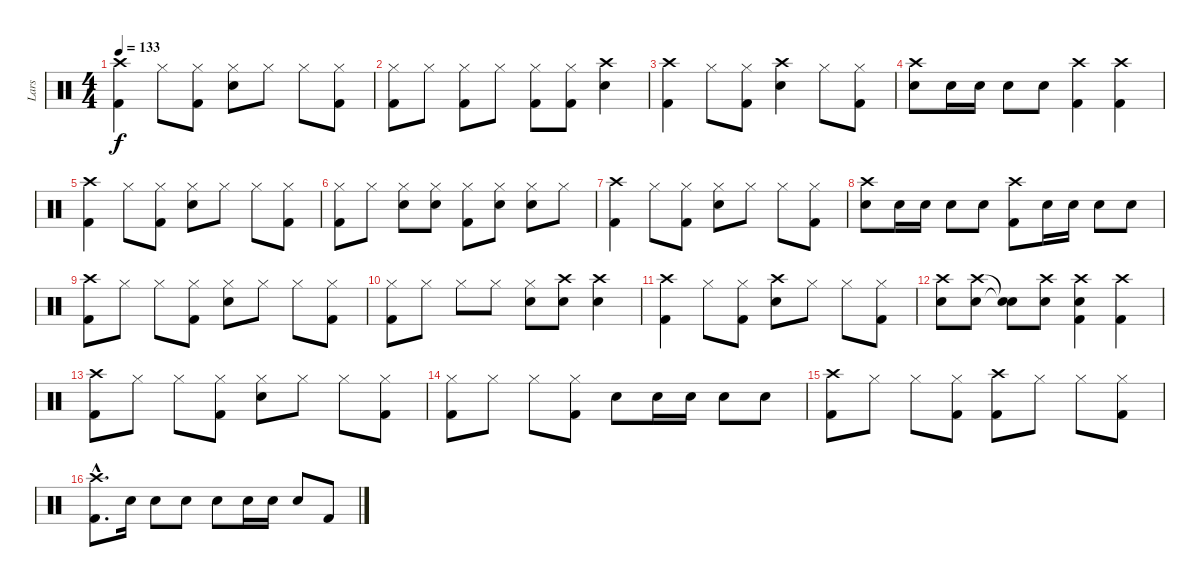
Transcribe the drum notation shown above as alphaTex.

\track ("Lars" "Lars") {instrument percussion}
\staff {score}
\articulation defaults
\ts (4 4)
\tempo 133
\clef neutral
\ks c
("Crash high (hit)" "Kick (hit) 2").4{dy f} "Hi-Hat (closed)".8 ("Kick (hit) 2" "Hi-Hat (closed)").8 ("Hi-Hat (closed)" "Electric Snare (hit)").8 "Hi-Hat (closed)".8 "Hi-Hat (closed)".8 ("Kick (hit) 2" "Hi-Hat (closed)").8 |
("Hi-Hat (closed)" "Kick (hit) 2").8 "Hi-Hat (closed)".8 ("Hi-Hat (closed)" "Kick (hit) 2").8 "Hi-Hat (closed)".8 ("Hi-Hat (closed)" "Kick (hit) 2").8 ("Hi-Hat (closed)" "Kick (hit) 2").8 ("Crash high (hit)" "Electric Snare (hit)").4 |
("Crash high (hit)" "Kick (hit) 2").4 "Hi-Hat (closed)".8 ("Hi-Hat (closed)" "Kick (hit) 2").8 ("Crash high (hit)" "Electric Snare (hit)").4 "Hi-Hat (closed)".8 ("Hi-Hat (closed)" "Kick (hit) 2").8 |
("Crash high (hit)" "Snare (hit) 2").8 "Electric Snare (hit)".16 "Electric Snare (hit)".16 "Electric Snare (hit)".8 "Electric Snare (hit)".8 ("Crash high (hit)" "Kick (hit) 2").4 ("Crash high (hit)" "Kick (hit) 2").4 |
("Crash high (hit)" "Kick (hit) 2").4 "Hi-Hat (closed)".8 ("Hi-Hat (closed)" "Kick (hit) 2").8 ("Hi-Hat (closed)" "Electric Snare (hit)").8 "Hi-Hat (closed)".8 "Hi-Hat (closed)".8 ("Hi-Hat (closed)" "Kick (hit) 2").8 |
("Hi-Hat (closed)" "Kick (hit) 2").8 "Hi-Hat (closed)".8 ("Hi-Hat (closed)" "Electric Snare (hit)").8 ("Hi-Hat (closed)" "Electric Snare (hit)").8 ("Hi-Hat (closed)" "Kick (hit) 2").8 ("Hi-Hat (closed)" "Electric Snare (hit)").8 ("Hi-Hat (closed)" "Electric Snare (hit)").8 "Hi-Hat (closed)".8 |
("Crash high (hit)" "Kick (hit) 2").4 "Hi-Hat (closed)".8 ("Kick (hit) 2" "Hi-Hat (closed)").8 ("Hi-Hat (closed)" "Electric Snare (hit)").8 "Hi-Hat (closed)".8 "Hi-Hat (closed)".8 ("Kick (hit) 2" "Hi-Hat (closed)").8 |
("Crash high (hit)" "Electric Snare (hit)").8 "Electric Snare (hit)".16 "Electric Snare (hit)".16 "Electric Snare (hit)".8 "Electric Snare (hit)".8 ("Crash high (hit)" "Kick (hit) 2").8 "Electric Snare (hit)".16 "Electric Snare (hit)".16 "Electric Snare (hit)".8 "Electric Snare (hit)".8 |
("Crash high (hit)" "Kick (hit) 2").8 "Hi-Hat (closed)".8 "Hi-Hat (closed)".8 ("Hi-Hat (closed)" "Kick (hit) 2").8 ("Hi-Hat (closed)" "Electric Snare (hit)").8 "Hi-Hat (closed)".8 "Hi-Hat (closed)".8 ("Hi-Hat (closed)" "Kick (hit) 2").8 |
("Hi-Hat (closed)" "Kick (hit) 2").8 "Hi-Hat (closed)".8 "Hi-Hat (closed)".8 "Hi-Hat (closed)".8 ("Hi-Hat (closed)" "Electric Snare (hit)").8 ("Crash high (hit)" "Electric Snare (hit)").8 ("Crash high (hit)" "Electric Snare (hit)").4 |
("Crash high (hit)" "Kick (hit) 2").4 "Hi-Hat (closed)".8 ("Hi-Hat (closed)" "Kick (hit) 2").8 ("Crash high (hit)" "Electric Snare (hit)").8 "Hi-Hat (closed)".8 "Hi-Hat (closed)".8 ("Hi-Hat (closed)" "Kick (hit) 2").8 |
("Crash high (hit)" "Electric Snare (hit)").8 ("Crash high (hit)" "Electric Snare (hit)").8 ("Snare (hit)"{t} "Snare (hit)"{t}).8 ("Crash high (hit)" "Electric Snare (hit)").8 ("Crash high (hit)" "Electric Snare (hit)" "Kick (hit) 2").4 ("Crash high (hit)" "Kick (hit) 2").4 |
("Crash high (hit)" "Kick (hit) 2").8 "Hi-Hat (closed)".8 "Hi-Hat (closed)".8 ("Hi-Hat (closed)" "Kick (hit) 2").8 ("Hi-Hat (closed)" "Electric Snare (hit)").8 "Hi-Hat (closed)".8 "Hi-Hat (closed)".8 ("Hi-Hat (closed)" "Kick (hit) 2").8 |
("Hi-Hat (closed)" "Kick (hit) 2").8 "Hi-Hat (closed)".8 "Hi-Hat (closed)".8 ("Hi-Hat (closed)" "Kick (hit) 2").8 "Electric Snare (hit)".8 "Electric Snare (hit)".16 "Electric Snare (hit)".16 "Electric Snare (hit)".8 "Electric Snare (hit)".8 |
("Crash high (hit)" "Kick (hit) 2").8 "Hi-Hat (closed)".8 "Hi-Hat (closed)".8 ("Hi-Hat (closed)" "Kick (hit) 2").8 ("Crash high (hit)" "Kick (hit) 2").8 "Hi-Hat (closed)".8 "Hi-Hat (closed)".8 ("Hi-Hat (closed)" "Kick (hit) 2").8 |
("Crash high (hit)"{hac} "Kick (hit) 2"{hac}).8{d} "Electric Snare (hit)".16 "Electric Snare (hit)".8 "Electric Snare (hit)".8 "Electric Snare (hit)".8 "Electric Snare (hit)".16 "Electric Snare (hit)".16 "Electric Snare (hit)".8 "Kick (hit) 2".8
